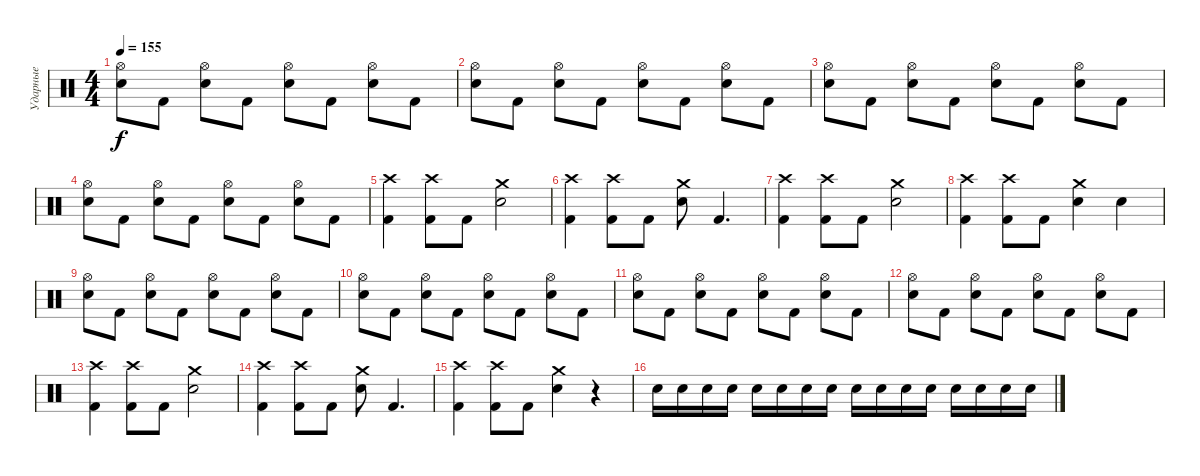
\track ("Ударные" "Ударные") {instrument percussion}
\staff {score}
\articulation defaults
\ts (4 4)
\tempo 155
\clef neutral
\ks c
("Electric Snare (hit)" "Hi-Hat (open)").8{dy f} "Kick (hit) 2".8 ("Electric Snare (hit)" "Hi-Hat (open)").8 "Kick (hit) 2".8 ("Electric Snare (hit)" "Hi-Hat (open)").8 "Kick (hit) 2".8 ("Electric Snare (hit)" "Hi-Hat (open)").8 "Kick (hit) 2".8 |
("Electric Snare (hit)" "Hi-Hat (open)").8 "Kick (hit) 2".8 ("Electric Snare (hit)" "Hi-Hat (open)").8 "Kick (hit) 2".8 ("Electric Snare (hit)" "Hi-Hat (open)").8 "Kick (hit) 2".8 ("Electric Snare (hit)" "Hi-Hat (open)").8 "Kick (hit) 2".8 |
("Electric Snare (hit)" "Hi-Hat (open)").8 "Kick (hit) 2".8 ("Electric Snare (hit)" "Hi-Hat (open)").8 "Kick (hit) 2".8 ("Electric Snare (hit)" "Hi-Hat (open)").8 "Kick (hit) 2".8 ("Electric Snare (hit)" "Hi-Hat (open)").8 "Kick (hit) 2".8 |
("Electric Snare (hit)" "Hi-Hat (open)").8 "Kick (hit) 2".8 ("Electric Snare (hit)" "Hi-Hat (open)").8 "Kick (hit) 2".8 ("Electric Snare (hit)" "Hi-Hat (open)").8 "Kick (hit) 2".8 ("Electric Snare (hit)" "Hi-Hat (open)").8 "Kick (hit) 2".8 |
("Kick (hit) 2" "Crash high (hit)").4 ("Kick (hit) 2" "Crash high (hit)").8 "Kick (hit) 2".8 ("Electric Snare (hit)" "Crash medium (hit)").2 |
("Kick (hit) 2" "Crash high (hit)").4 ("Kick (hit) 2" "Crash high (hit)").8 "Kick (hit) 2".8 ("Electric Snare (hit)" "Crash medium (hit)").8 "Kick (hit) 2".4{d} |
("Kick (hit) 2" "Crash high (hit)").4 ("Kick (hit) 2" "Crash high (hit)").8 "Kick (hit) 2".8 ("Electric Snare (hit)" "Crash medium (hit)").2 |
("Kick (hit) 2" "Crash high (hit)").4 ("Kick (hit) 2" "Crash high (hit)").8 "Kick (hit) 2".8 ("Electric Snare (hit)" "Crash medium (hit)").4 "Electric Snare (hit)".4 |
("Electric Snare (hit)" "Hi-Hat (open)").8 "Kick (hit) 2".8 ("Electric Snare (hit)" "Hi-Hat (open)").8 "Kick (hit) 2".8 ("Electric Snare (hit)" "Hi-Hat (open)").8 "Kick (hit) 2".8 ("Electric Snare (hit)" "Hi-Hat (open)").8 "Kick (hit) 2".8 |
("Electric Snare (hit)" "Hi-Hat (open)").8 "Kick (hit) 2".8 ("Electric Snare (hit)" "Hi-Hat (open)").8 "Kick (hit) 2".8 ("Electric Snare (hit)" "Hi-Hat (open)").8 "Kick (hit) 2".8 ("Electric Snare (hit)" "Hi-Hat (open)").8 "Kick (hit) 2".8 |
("Electric Snare (hit)" "Hi-Hat (open)").8 "Kick (hit) 2".8 ("Electric Snare (hit)" "Hi-Hat (open)").8 "Kick (hit) 2".8 ("Electric Snare (hit)" "Hi-Hat (open)").8 "Kick (hit) 2".8 ("Electric Snare (hit)" "Hi-Hat (open)").8 "Kick (hit) 2".8 |
("Electric Snare (hit)" "Hi-Hat (open)").8 "Kick (hit) 2".8 ("Electric Snare (hit)" "Hi-Hat (open)").8 "Kick (hit) 2".8 ("Electric Snare (hit)" "Hi-Hat (open)").8 "Kick (hit) 2".8 ("Electric Snare (hit)" "Hi-Hat (open)").8 "Kick (hit) 2".8 |
("Kick (hit) 2" "Crash high (hit)").4 ("Kick (hit) 2" "Crash high (hit)").8 "Kick (hit) 2".8 ("Electric Snare (hit)" "Crash medium (hit)").2 |
("Kick (hit) 2" "Crash high (hit)").4 ("Kick (hit) 2" "Crash high (hit)").8 "Kick (hit) 2".8 ("Electric Snare (hit)" "Crash medium (hit)").8 "Kick (hit) 2".4{d} |
("Kick (hit) 2" "Crash high (hit)").4 ("Kick (hit) 2" "Crash high (hit)").8 "Kick (hit) 2".8 ("Electric Snare (hit)" "Crash medium (hit)").4 r.4 |
"Snare (hit) 2".16 "Snare (hit) 2".16 "Snare (hit) 2".16 "Snare (hit) 2".16 "Snare (hit) 2".16 "Snare (hit) 2".16 "Snare (hit) 2".16 "Snare (hit) 2".16 "Snare (hit) 2".16 "Snare (hit) 2".16 "Snare (hit) 2".16 "Snare (hit) 2".16 "Snare (hit) 2".16 "Snare (hit) 2".16 "Snare (hit) 2".16 "Snare (hit) 2".16
